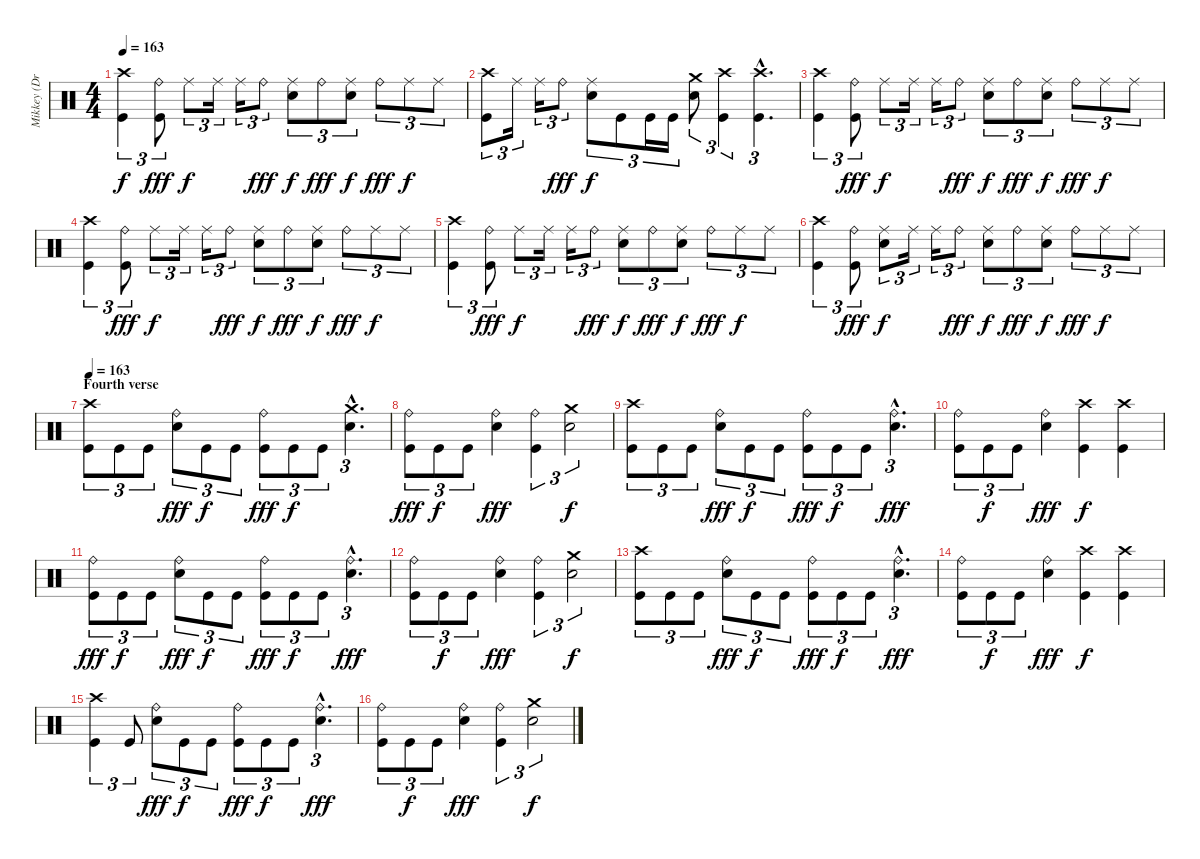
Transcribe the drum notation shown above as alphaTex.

\track ("Mikkey (Drums)" "Mikkey (Dr") {instrument percussion}
\staff {score}
\articulation defaults
\ts (4 4)
\tempo 163
\clef neutral
\ks c
("Crash high (hit)" "Kick (hit)").4{tu (3 2) dy f} ("Ride (bell)" "Kick (hit)").8{tu (3 2) dy fff} "Ride (middle)".8{tu (3 2) dy f} "Ride (middle)".16{tu (3 2)} "Ride (middle)".16{tu (3 2)} "Ride (bell)".8{tu (3 2) dy fff} ("Ride (middle)" "Electric Snare (hit)").8{tu (3 2) dy f} "Ride (bell)".8{tu (3 2) dy fff} ("Ride (middle)" "Electric Snare (hit)").8{tu (3 2) dy f} "Ride (bell)".8{tu (3 2) dy fff} "Ride (middle)".8{tu (3 2) dy f} "Ride (middle)".8{tu (3 2)} |
("Crash high (hit)" "Kick (hit)").8{tu (3 2)} "Ride (middle)".16{tu (3 2)} "Ride (middle)".16{tu (3 2)} "Ride (bell)".8{tu (3 2) dy fff} ("Ride (middle)" "Electric Snare (hit)").8{tu (3 2) dy f} "Kick (hit)".8{tu (3 2)} "Kick (hit)".16{tu (3 2)} "Kick (hit)".16{tu (3 2)} ("Crash medium (hit)" "Electric Snare (hit)").8{tu (3 2)} ("Crash high (hit)" "Kick (hit)").4{tu (3 2)} ("Crash high (hit)"{hac} "Kick (hit)"{hac}).4{d tu (3 2)} |
("Crash high (hit)" "Kick (hit)").4{tu (3 2)} ("Ride (bell)" "Kick (hit)").8{tu (3 2) dy fff} "Ride (middle)".8{tu (3 2) dy f} "Ride (middle)".16{tu (3 2)} "Ride (middle)".16{tu (3 2)} "Ride (bell)".8{tu (3 2) dy fff} ("Ride (middle)" "Electric Snare (hit)").8{tu (3 2) dy f} "Ride (bell)".8{tu (3 2) dy fff} ("Ride (middle)" "Electric Snare (hit)").8{tu (3 2) dy f} "Ride (bell)".8{tu (3 2) dy fff} "Ride (middle)".8{tu (3 2) dy f} "Ride (middle)".8{tu (3 2)} |
("Crash high (hit)" "Kick (hit)").4{tu (3 2)} ("Ride (bell)" "Kick (hit)").8{tu (3 2) dy fff} "Ride (middle)".8{tu (3 2) dy f} "Ride (middle)".16{tu (3 2)} "Ride (middle)".16{tu (3 2)} "Ride (bell)".8{tu (3 2) dy fff} ("Ride (middle)" "Electric Snare (hit)").8{tu (3 2) dy f} "Ride (bell)".8{tu (3 2) dy fff} ("Ride (middle)" "Electric Snare (hit)").8{tu (3 2) dy f} "Ride (bell)".8{tu (3 2) dy fff} "Ride (middle)".8{tu (3 2) dy f} "Ride (middle)".8{tu (3 2)} |
("Crash high (hit)" "Kick (hit)").4{tu (3 2)} ("Ride (bell)" "Kick (hit)").8{tu (3 2) dy fff} "Ride (middle)".8{tu (3 2) dy f} "Ride (middle)".16{tu (3 2)} "Ride (middle)".16{tu (3 2)} "Ride (bell)".8{tu (3 2) dy fff} ("Ride (middle)" "Electric Snare (hit)").8{tu (3 2) dy f} "Ride (bell)".8{tu (3 2) dy fff} ("Ride (middle)" "Electric Snare (hit)").8{tu (3 2) dy f} "Ride (bell)".8{tu (3 2) dy fff} "Ride (middle)".8{tu (3 2) dy f} "Ride (middle)".8{tu (3 2)} |
("Crash high (hit)" "Kick (hit)").4{tu (3 2)} ("Ride (bell)" "Kick (hit)").8{tu (3 2) dy fff} ("Ride (middle)" "Electric Snare (hit)").8{tu (3 2) dy f} "Ride (middle)".16{tu (3 2)} "Ride (middle)".16{tu (3 2)} "Ride (bell)".8{tu (3 2) dy fff} ("Ride (middle)" "Electric Snare (hit)").8{tu (3 2) dy f} "Ride (bell)".8{tu (3 2) dy fff} ("Ride (middle)" "Electric Snare (hit)").8{tu (3 2) dy f} "Ride (bell)".8{tu (3 2) dy fff} "Ride (middle)".8{tu (3 2) dy f} "Ride (middle)".8{tu (3 2)} |
\section ("" "Fourth verse")
\tempo 163
("Crash high (hit)" "Kick (hit)").8{tu (3 2)} "Kick (hit)".8{tu (3 2)} "Kick (hit)".8{tu (3 2)} ("Ride (bell)" "Electric Snare (hit)").8{tu (3 2) dy fff} "Kick (hit)".8{tu (3 2) dy f} "Kick (hit)".8{tu (3 2)} ("Ride (bell)" "Kick (hit)").8{tu (3 2) dy fff} "Kick (hit)".8{tu (3 2) dy f} "Kick (hit)".8{tu (3 2)} ("Crash medium (hit)"{hac} "Electric Snare (hit)"{hac}).4{d tu (3 2)} |
("Ride (bell)" "Kick (hit)").8{tu (3 2) dy fff} "Kick (hit)".8{tu (3 2) dy f} "Kick (hit)".8{tu (3 2)} ("Ride (bell)" "Electric Snare (hit)").4{dy fff} ("Ride (bell)" "Kick (hit)").4{tu (3 2)} ("Crash medium (hit)" "Electric Snare (hit)").2{tu (3 2) dy f} |
("Crash high (hit)" "Kick (hit)").8{tu (3 2)} "Kick (hit)".8{tu (3 2)} "Kick (hit)".8{tu (3 2)} ("Ride (bell)" "Electric Snare (hit)").8{tu (3 2) dy fff} "Kick (hit)".8{tu (3 2) dy f} "Kick (hit)".8{tu (3 2)} ("Ride (bell)" "Kick (hit)").8{tu (3 2) dy fff} "Kick (hit)".8{tu (3 2) dy f} "Kick (hit)".8{tu (3 2)} ("Ride (bell)"{hac} "Electric Snare (hit)"{hac}).4{d tu (3 2) dy fff} |
("Ride (bell)" "Kick (hit)").8{tu (3 2)} "Kick (hit)".8{tu (3 2) dy f} "Kick (hit)".8{tu (3 2)} ("Ride (bell)" "Electric Snare (hit)").4{dy fff} ("Crash high (hit)" "Kick (hit)").4{dy f} ("Crash high (hit)" "Kick (hit)").4 |
("Ride (bell)" "Kick (hit)").8{tu (3 2) dy fff} "Kick (hit)".8{tu (3 2) dy f} "Kick (hit)".8{tu (3 2)} ("Ride (bell)" "Electric Snare (hit)").8{tu (3 2) dy fff} "Kick (hit)".8{tu (3 2) dy f} "Kick (hit)".8{tu (3 2)} ("Ride (bell)" "Kick (hit)").8{tu (3 2) dy fff} "Kick (hit)".8{tu (3 2) dy f} "Kick (hit)".8{tu (3 2)} ("Ride (bell)"{hac} "Electric Snare (hit)"{hac}).4{d tu (3 2) dy fff} |
("Ride (bell)" "Kick (hit)").8{tu (3 2)} "Kick (hit)".8{tu (3 2) dy f} "Kick (hit)".8{tu (3 2)} ("Ride (bell)" "Electric Snare (hit)").4{dy fff} ("Ride (bell)" "Kick (hit)").4{tu (3 2)} ("Crash medium (hit)" "Electric Snare (hit)").2{tu (3 2) dy f} |
("Crash high (hit)" "Kick (hit)").8{tu (3 2)} "Kick (hit)".8{tu (3 2)} "Kick (hit)".8{tu (3 2)} ("Ride (bell)" "Electric Snare (hit)").8{tu (3 2) dy fff} "Kick (hit)".8{tu (3 2) dy f} "Kick (hit)".8{tu (3 2)} ("Ride (bell)" "Kick (hit)").8{tu (3 2) dy fff} "Kick (hit)".8{tu (3 2) dy f} "Kick (hit)".8{tu (3 2)} ("Ride (bell)"{hac} "Electric Snare (hit)"{hac}).4{d tu (3 2) dy fff} |
("Ride (bell)" "Kick (hit)").8{tu (3 2)} "Kick (hit)".8{tu (3 2) dy f} "Kick (hit)".8{tu (3 2)} ("Ride (bell)" "Electric Snare (hit)").4{dy fff} ("Crash high (hit)" "Kick (hit)").4{dy f} ("Crash high (hit)" "Kick (hit)").4 |
("Crash high (hit)" "Kick (hit)").4{tu (3 2)} "Kick (hit)".8{tu (3 2)} ("Ride (bell)" "Electric Snare (hit)").8{tu (3 2) dy fff} "Kick (hit)".8{tu (3 2) dy f} "Kick (hit)".8{tu (3 2)} ("Ride (bell)" "Kick (hit)").8{tu (3 2) dy fff} "Kick (hit)".8{tu (3 2) dy f} "Kick (hit)".8{tu (3 2)} ("Ride (bell)"{hac} "Electric Snare (hit)"{hac}).4{d tu (3 2) dy fff} |
("Ride (bell)" "Kick (hit)").8{tu (3 2)} "Kick (hit)".8{tu (3 2) dy f} "Kick (hit)".8{tu (3 2)} ("Ride (bell)" "Electric Snare (hit)").4{dy fff} ("Ride (bell)" "Kick (hit)").4{tu (3 2)} ("Crash medium (hit)" "Electric Snare (hit)").2{tu (3 2) dy f}
